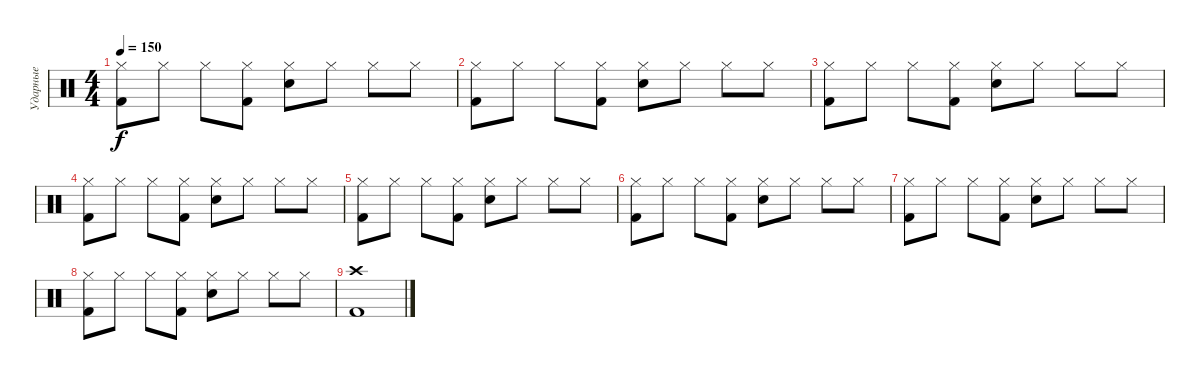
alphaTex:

\track ("Ударные" "Ударные") {instrument percussion}
\staff {score}
\articulation defaults
\ts (4 4)
\tempo 150
\clef neutral
\ks c
("Hi-Hat (closed)" "Kick (hit) 2").8{dy f} "Hi-Hat (closed)".8 "Hi-Hat (closed)".8 ("Hi-Hat (closed)" "Kick (hit) 2").8 ("Hi-Hat (closed)" "Electric Snare (hit)").8 "Hi-Hat (closed)".8 "Hi-Hat (closed)".8 "Hi-Hat (closed)".8 |
("Hi-Hat (closed)" "Kick (hit) 2").8 "Hi-Hat (closed)".8 "Hi-Hat (closed)".8 ("Hi-Hat (closed)" "Kick (hit) 2").8 ("Hi-Hat (closed)" "Electric Snare (hit)").8 "Hi-Hat (closed)".8 "Hi-Hat (closed)".8 "Hi-Hat (closed)".8 |
("Hi-Hat (closed)" "Kick (hit) 2").8 "Hi-Hat (closed)".8 "Hi-Hat (closed)".8 ("Hi-Hat (closed)" "Kick (hit) 2").8 ("Hi-Hat (closed)" "Electric Snare (hit)").8 "Hi-Hat (closed)".8 "Hi-Hat (closed)".8 "Hi-Hat (closed)".8 |
("Hi-Hat (closed)" "Kick (hit) 2").8 "Hi-Hat (closed)".8 "Hi-Hat (closed)".8 ("Hi-Hat (closed)" "Kick (hit) 2").8 ("Hi-Hat (closed)" "Electric Snare (hit)").8 "Hi-Hat (closed)".8 "Hi-Hat (closed)".8 "Hi-Hat (closed)".8 |
("Hi-Hat (closed)" "Kick (hit) 2").8 "Hi-Hat (closed)".8 "Hi-Hat (closed)".8 ("Hi-Hat (closed)" "Kick (hit) 2").8 ("Hi-Hat (closed)" "Electric Snare (hit)").8 "Hi-Hat (closed)".8 "Hi-Hat (closed)".8 "Hi-Hat (closed)".8 |
("Hi-Hat (closed)" "Kick (hit) 2").8 "Hi-Hat (closed)".8 "Hi-Hat (closed)".8 ("Hi-Hat (closed)" "Kick (hit) 2").8 ("Hi-Hat (closed)" "Electric Snare (hit)").8 "Hi-Hat (closed)".8 "Hi-Hat (closed)".8 "Hi-Hat (closed)".8 |
("Hi-Hat (closed)" "Kick (hit) 2").8 "Hi-Hat (closed)".8 "Hi-Hat (closed)".8 ("Hi-Hat (closed)" "Kick (hit) 2").8 ("Hi-Hat (closed)" "Electric Snare (hit)").8 "Hi-Hat (closed)".8 "Hi-Hat (closed)".8 "Hi-Hat (closed)".8 |
("Hi-Hat (closed)" "Kick (hit) 2").8 "Hi-Hat (closed)".8 "Hi-Hat (closed)".8 ("Hi-Hat (closed)" "Kick (hit) 2").8 ("Hi-Hat (closed)" "Electric Snare (hit)").8 "Hi-Hat (closed)".8 "Hi-Hat (closed)".8 "Hi-Hat (closed)".8 |
("Crash high (hit)" "Kick (hit) 2").1
